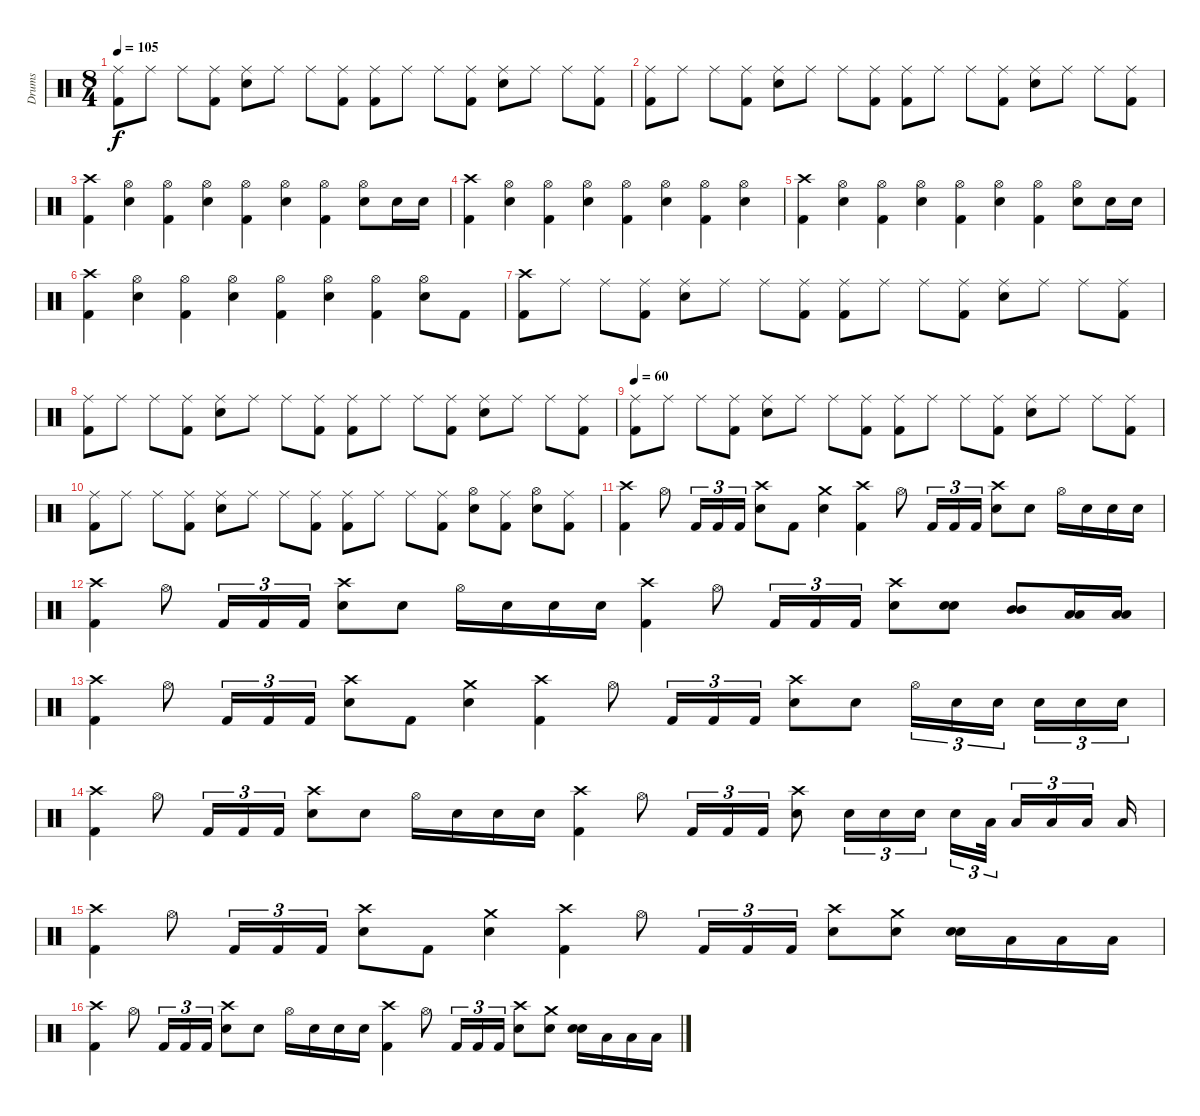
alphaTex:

\track ("Drums" "Drums") {instrument percussion}
\staff {score}
\articulation defaults
\ts (8 4)
\tempo 105
\clef neutral
\ks c
("Ride (middle)" "Kick (hit) 2").8{dy f} "Ride (middle)".8 "Ride (middle)".8 ("Ride (middle)" "Kick (hit) 2").8 ("Ride (middle)" "Electric Snare (hit)").8 "Ride (middle)".8 "Ride (middle)".8 ("Ride (middle)" "Kick (hit) 2").8 ("Ride (middle)" "Kick (hit) 2").8 "Ride (middle)".8 "Ride (middle)".8 ("Ride (middle)" "Kick (hit) 2").8 ("Ride (middle)" "Electric Snare (hit)").8 "Ride (middle)".8 "Ride (middle)".8 ("Ride (middle)" "Kick (hit) 2").8 |
("Ride (middle)" "Kick (hit) 2").8 "Ride (middle)".8 "Ride (middle)".8 ("Ride (middle)" "Kick (hit) 2").8 ("Ride (middle)" "Electric Snare (hit)").8 "Ride (middle)".8 "Ride (middle)".8 ("Ride (middle)" "Kick (hit) 2").8 ("Ride (middle)" "Kick (hit) 2").8 "Ride (middle)".8 "Ride (middle)".8 ("Ride (middle)" "Kick (hit) 2").8 ("Ride (middle)" "Electric Snare (hit)").8 "Ride (middle)".8 "Ride (middle)".8 ("Ride (middle)" "Kick (hit) 2").8 |
("Crash high (hit)" "Kick (hit) 2").4 ("Hi-Hat (open)" "Electric Snare (hit)").4 ("Hi-Hat (open)" "Kick (hit) 2").4 ("Hi-Hat (open)" "Electric Snare (hit)").4 ("Hi-Hat (open)" "Kick (hit) 2").4 ("Hi-Hat (open)" "Electric Snare (hit)").4 ("Hi-Hat (open)" "Kick (hit) 2").4 ("Hi-Hat (open)" "Electric Snare (hit)").8 "Electric Snare (hit)".16 "Electric Snare (hit)".16 |
("Crash high (hit)" "Kick (hit) 2").4 ("Hi-Hat (open)" "Electric Snare (hit)").4 ("Hi-Hat (open)" "Kick (hit) 2").4 ("Hi-Hat (open)" "Electric Snare (hit)").4 ("Hi-Hat (open)" "Kick (hit) 2").4 ("Hi-Hat (open)" "Electric Snare (hit)").4 ("Hi-Hat (open)" "Kick (hit) 2").4 ("Hi-Hat (open)" "Electric Snare (hit)").4 |
("Crash high (hit)" "Kick (hit) 2").4 ("Hi-Hat (open)" "Electric Snare (hit)").4 ("Hi-Hat (open)" "Kick (hit) 2").4 ("Hi-Hat (open)" "Electric Snare (hit)").4 ("Hi-Hat (open)" "Kick (hit) 2").4 ("Hi-Hat (open)" "Electric Snare (hit)").4 ("Hi-Hat (open)" "Kick (hit) 2").4 ("Hi-Hat (open)" "Electric Snare (hit)").8 "Electric Snare (hit)".16 "Electric Snare (hit)".16 |
("Crash high (hit)" "Kick (hit) 2").4 ("Hi-Hat (open)" "Electric Snare (hit)").4 ("Hi-Hat (open)" "Kick (hit) 2").4 ("Hi-Hat (open)" "Electric Snare (hit)").4 ("Hi-Hat (open)" "Kick (hit) 2").4 ("Hi-Hat (open)" "Electric Snare (hit)").4 ("Hi-Hat (open)" "Kick (hit) 2").4 ("Hi-Hat (open)" "Electric Snare (hit)").8 "Kick (hit) 2".8 |
("Crash high (hit)" "Kick (hit) 2").8 "Ride (middle)".8 "Ride (middle)".8 ("Ride (middle)" "Kick (hit) 2").8 ("Ride (middle)" "Electric Snare (hit)").8 "Ride (middle)".8 "Ride (middle)".8 ("Ride (middle)" "Kick (hit) 2").8 ("Ride (middle)" "Kick (hit) 2").8 "Ride (middle)".8 "Ride (middle)".8 ("Ride (middle)" "Kick (hit) 2").8 ("Ride (middle)" "Electric Snare (hit)").8 "Ride (middle)".8 "Ride (middle)".8 ("Ride (middle)" "Kick (hit) 2").8 |
("Ride (middle)" "Kick (hit) 2").8 "Ride (middle)".8 "Ride (middle)".8 ("Ride (middle)" "Kick (hit) 2").8 ("Ride (middle)" "Electric Snare (hit)").8 "Ride (middle)".8 "Ride (middle)".8 ("Ride (middle)" "Kick (hit) 2").8 ("Ride (middle)" "Kick (hit) 2").8 "Ride (middle)".8 "Ride (middle)".8 ("Ride (middle)" "Kick (hit) 2").8 ("Ride (middle)" "Electric Snare (hit)").8 "Ride (middle)".8 "Ride (middle)".8 ("Ride (middle)" "Kick (hit) 2").8 |
\tempo 60
("Ride (middle)" "Kick (hit) 2").8 "Ride (middle)".8 "Ride (middle)".8 ("Ride (middle)" "Kick (hit) 2").8 ("Ride (middle)" "Electric Snare (hit)").8 "Ride (middle)".8 "Ride (middle)".8 ("Ride (middle)" "Kick (hit) 2").8 ("Ride (middle)" "Kick (hit) 2").8 "Ride (middle)".8 "Ride (middle)".8 ("Ride (middle)" "Kick (hit) 2").8 ("Ride (middle)" "Electric Snare (hit)").8 "Ride (middle)".8 "Ride (middle)".8 ("Ride (middle)" "Kick (hit) 2").8 |
("Ride (middle)" "Kick (hit) 2").8 "Ride (middle)".8 "Ride (middle)".8 ("Ride (middle)" "Kick (hit) 2").8 ("Ride (middle)" "Electric Snare (hit)").8 "Ride (middle)".8 "Ride (middle)".8 ("Ride (middle)" "Kick (hit) 2").8 ("Ride (middle)" "Kick (hit) 2").8 "Ride (middle)".8 "Ride (middle)".8 ("Ride (middle)" "Kick (hit) 2").8 ("Hi-Hat (open)" "Electric Snare (hit)").8 ("Ride (middle)" "Kick (hit) 2").8 ("Hi-Hat (open)" "Electric Snare (hit)").8 ("Ride (middle)" "Kick (hit) 2").8 |
("Crash high (hit)" "Kick (hit) 2").4 "Hi-Hat (open)".8 "Kick (hit) 2".16{tu (3 2)} "Kick (hit) 2".16{tu (3 2)} "Kick (hit) 2".16{tu (3 2)} ("Crash high (hit)" "Electric Snare (hit)").8 "Kick (hit) 2".8 ("Crash medium (hit)" "Electric Snare (hit)").4 ("Crash high (hit)" "Kick (hit) 2").4 "Hi-Hat (open)".8 "Kick (hit) 2".16{tu (3 2)} "Kick (hit) 2".16{tu (3 2)} "Kick (hit) 2".16{tu (3 2)} ("Crash high (hit)" "Electric Snare (hit)").8 "Electric Snare (hit)".8 "Hi-Hat (open)".16 "Electric Snare (hit)".16 "Electric Snare (hit)".16 "Electric Snare (hit)".16 |
("Crash high (hit)" "Kick (hit) 2").4 "Hi-Hat (open)".8 "Kick (hit) 2".16{tu (3 2)} "Kick (hit) 2".16{tu (3 2)} "Kick (hit) 2".16{tu (3 2)} ("Crash high (hit)" "Electric Snare (hit)").8 "Electric Snare (hit)".8 "Hi-Hat (open)".16 "Electric Snare (hit)".16 "Electric Snare (hit)".16 "Electric Snare (hit)".16 ("Crash high (hit)" "Kick (hit) 2").4 "Hi-Hat (open)".8 "Kick (hit) 2".16{tu (3 2)} "Kick (hit) 2".16{tu (3 2)} "Kick (hit) 2".16{tu (3 2)} ("Crash high (hit)" "Electric Snare (hit)").8 ("Electric Snare (hit)" "Electric Snare (hit)").8{bu 60} ("Mid Tom (hit)" "Mid Tom (hit)").8{bu 60} ("Low Tom (hit)" "Low Tom (hit)").16{bu 60} ("Low Tom (hit)" "Low Tom (hit)").16{bu 60} |
("Crash high (hit)" "Kick (hit) 2").4 "Hi-Hat (open)".8 "Kick (hit) 2".16{tu (3 2)} "Kick (hit) 2".16{tu (3 2)} "Kick (hit) 2".16{tu (3 2)} ("Crash high (hit)" "Electric Snare (hit)").8 "Kick (hit) 2".8 ("Crash medium (hit)" "Electric Snare (hit)").4 ("Crash high (hit)" "Kick (hit) 2").4 "Hi-Hat (open)".8 "Kick (hit) 2".16{tu (3 2)} "Kick (hit) 2".16{tu (3 2)} "Kick (hit) 2".16{tu (3 2)} ("Crash high (hit)" "Electric Snare (hit)").8 "Electric Snare (hit)".8 "Hi-Hat (open)".16{tu (3 2)} "Electric Snare (hit)".16{tu (3 2)} "Electric Snare (hit)".16{tu (3 2)} "Electric Snare (hit)".16{tu (3 2)} "Electric Snare (hit)".16{tu (3 2)} "Electric Snare (hit)".16{tu (3 2)} |
("Crash high (hit)" "Kick (hit) 2").4 "Hi-Hat (open)".8 "Kick (hit) 2".16{tu (3 2)} "Kick (hit) 2".16{tu (3 2)} "Kick (hit) 2".16{tu (3 2)} ("Crash high (hit)" "Electric Snare (hit)").8 "Electric Snare (hit)".8 "Hi-Hat (open)".16 "Electric Snare (hit)".16 "Electric Snare (hit)".16 "Electric Snare (hit)".16 ("Crash high (hit)" "Kick (hit) 2").4 "Hi-Hat (open)".8 "Kick (hit) 2".16{tu (3 2)} "Kick (hit) 2".16{tu (3 2)} "Kick (hit) 2".16{tu (3 2)} ("Crash high (hit)" "Electric Snare (hit)").8 "Electric Snare (hit)".16{tu (3 2)} "Electric Snare (hit)".16{tu (3 2)} "Electric Snare (hit)".16{tu (3 2)} "Electric Snare (hit)".16{tu (3 2)} "Low Tom (hit)".32{tu (3 2)} "Low Tom (hit)".16{tu (3 2)} "Low Tom (hit)".16{tu (3 2)} "Low Tom (hit)".16{tu (3 2)} "Low Tom (hit)".16 |
("Crash high (hit)" "Kick (hit) 2").4 "Hi-Hat (open)".8 "Kick (hit) 2".16{tu (3 2)} "Kick (hit) 2".16{tu (3 2)} "Kick (hit) 2".16{tu (3 2)} ("Crash high (hit)" "Electric Snare (hit)").8 "Kick (hit) 2".8 ("Crash medium (hit)" "Electric Snare (hit)").4 ("Crash high (hit)" "Kick (hit) 2").4 "Hi-Hat (open)".8 "Kick (hit) 2".16{tu (3 2)} "Kick (hit) 2".16{tu (3 2)} "Kick (hit) 2".16{tu (3 2)} ("Crash high (hit)" "Electric Snare (hit)").8 ("Crash medium (hit)" "Electric Snare (hit)").8 ("Electric Snare (hit)" "Electric Snare (hit)").16{bu 60} "Low Tom (hit)".16 "Low Tom (hit)".16 "Low Tom (hit)".16 |
("Crash high (hit)" "Kick (hit) 2").4 "Hi-Hat (open)".8 "Kick (hit) 2".16{tu (3 2)} "Kick (hit) 2".16{tu (3 2)} "Kick (hit) 2".16{tu (3 2)} ("Crash high (hit)" "Electric Snare (hit)").8 "Electric Snare (hit)".8 "Hi-Hat (open)".16 "Electric Snare (hit)".16 "Electric Snare (hit)".16 "Electric Snare (hit)".16 ("Crash high (hit)" "Kick (hit) 2").4 "Hi-Hat (open)".8 "Kick (hit) 2".16{tu (3 2)} "Kick (hit) 2".16{tu (3 2)} "Kick (hit) 2".16{tu (3 2)} ("Crash high (hit)" "Electric Snare (hit)").8 ("Crash medium (hit)" "Electric Snare (hit)").8 ("Electric Snare (hit)" "Electric Snare (hit)").16{bu 60} "Low Tom (hit)".16 "Low Tom (hit)".16 "Low Tom (hit)".16
